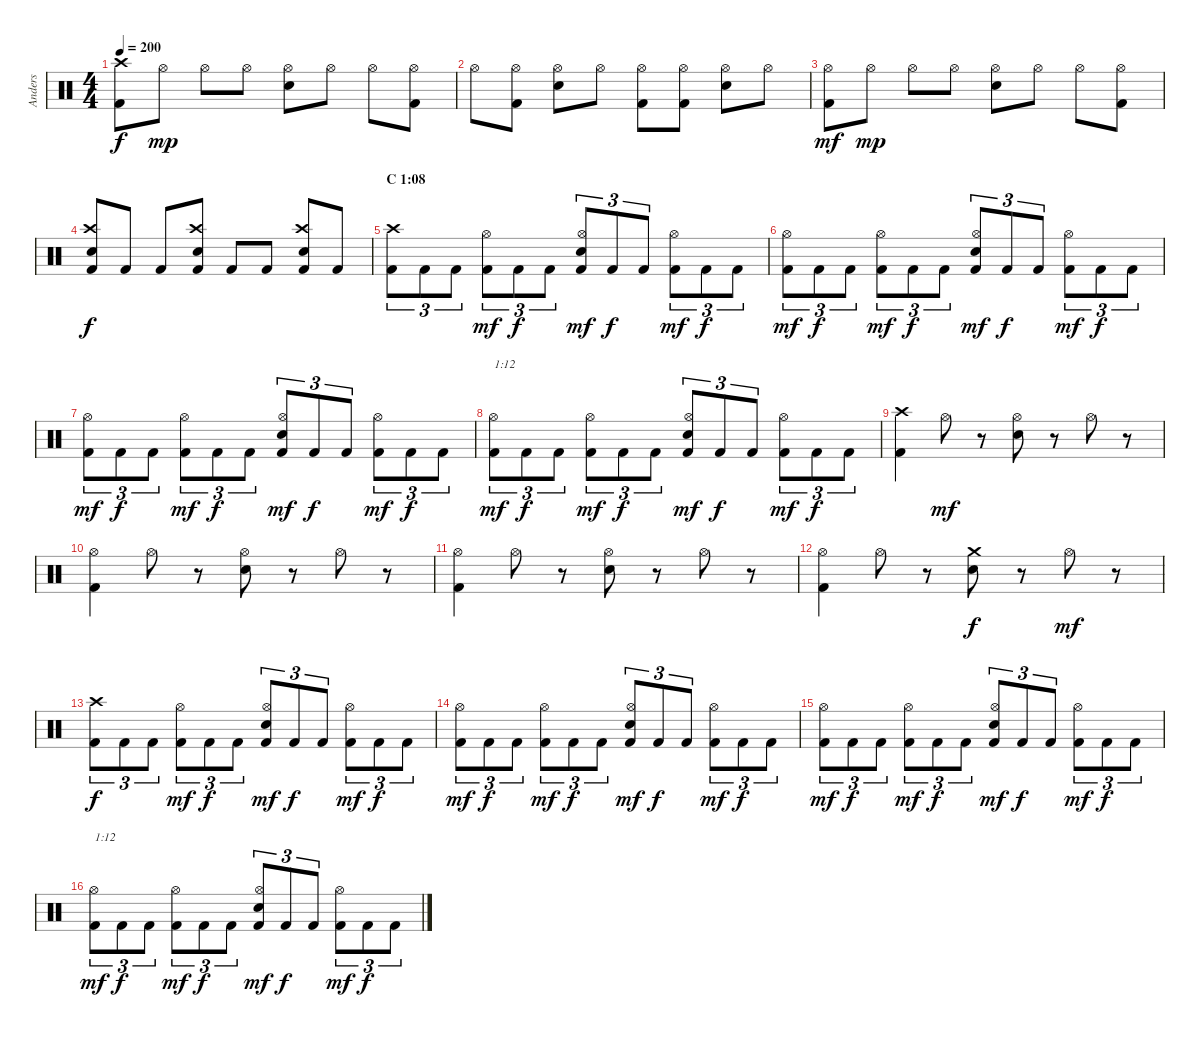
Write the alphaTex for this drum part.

\track ("Anders" "Anders") {instrument percussion}
\staff {score}
\articulation defaults
\ts (4 4)
\tempo 200
\clef neutral
\ks c
("Kick (hit) 2" "Crash high (hit)").8{dy f} "Hi-Hat (open)".8{dy mp} "Hi-Hat (open)".8 "Hi-Hat (open)".8 ("Electric Snare (hit)" "Hi-Hat (open)").8 "Hi-Hat (open)".8 "Hi-Hat (open)".8 ("Kick (hit) 2" "Hi-Hat (open)").8 |
"Hi-Hat (open)".8 ("Kick (hit) 2" "Hi-Hat (open)").8 ("Electric Snare (hit)" "Hi-Hat (open)").8 "Hi-Hat (open)".8 ("Kick (hit) 2" "Hi-Hat (open)").8 ("Kick (hit) 2" "Hi-Hat (open)").8 ("Electric Snare (hit)" "Hi-Hat (open)").8 "Hi-Hat (open)".8 |
("Kick (hit) 2" "Hi-Hat (open)").8{dy mf} "Hi-Hat (open)".8{dy mp} "Hi-Hat (open)".8 "Hi-Hat (open)".8 ("Electric Snare (hit)" "Hi-Hat (open)").8 "Hi-Hat (open)".8 "Hi-Hat (open)".8 ("Kick (hit) 2" "Hi-Hat (open)").8 |
("Kick (hit) 2" "Electric Snare (hit)" "Crash high (hit)").8{dy f} "Kick (hit) 2".8 "Kick (hit) 2".8 ("Kick (hit) 2" "Electric Snare (hit)" "Crash high (hit)").8 "Kick (hit) 2".8 "Kick (hit) 2".8 ("Kick (hit) 2" "Electric Snare (hit)" "Crash high (hit)").8 "Kick (hit) 2".8 |
\section ("" "C 1:08")
("Kick (hit) 2" "Crash high (hit)").8{tu (3 2)} "Kick (hit) 2".8{tu (3 2)} "Kick (hit) 2".8{tu (3 2)} ("Kick (hit) 2" "Hi-Hat (open)").8{tu (3 2) dy mf} "Kick (hit) 2".8{tu (3 2) dy f} "Kick (hit) 2".8{tu (3 2)} ("Kick (hit) 2" "Electric Snare (hit)" "Hi-Hat (open)").8{tu (3 2) dy mf} "Kick (hit) 2".8{tu (3 2) dy f} "Kick (hit) 2".8{tu (3 2)} ("Kick (hit) 2" "Hi-Hat (open)").8{tu (3 2) dy mf} "Kick (hit) 2".8{tu (3 2) dy f} "Kick (hit) 2".8{tu (3 2)} |
("Kick (hit) 2" "Hi-Hat (open)").8{tu (3 2) dy mf} "Kick (hit) 2".8{tu (3 2) dy f} "Kick (hit) 2".8{tu (3 2)} ("Kick (hit) 2" "Hi-Hat (open)").8{tu (3 2) dy mf} "Kick (hit) 2".8{tu (3 2) dy f} "Kick (hit) 2".8{tu (3 2)} ("Kick (hit) 2" "Electric Snare (hit)" "Hi-Hat (open)").8{tu (3 2) dy mf} "Kick (hit) 2".8{tu (3 2) dy f} "Kick (hit) 2".8{tu (3 2)} ("Kick (hit) 2" "Hi-Hat (open)").8{tu (3 2) dy mf} "Kick (hit) 2".8{tu (3 2) dy f} "Kick (hit) 2".8{tu (3 2)} |
("Kick (hit) 2" "Hi-Hat (open)").8{tu (3 2) dy mf} "Kick (hit) 2".8{tu (3 2) dy f} "Kick (hit) 2".8{tu (3 2)} ("Kick (hit) 2" "Hi-Hat (open)").8{tu (3 2) dy mf} "Kick (hit) 2".8{tu (3 2) dy f} "Kick (hit) 2".8{tu (3 2)} ("Kick (hit) 2" "Electric Snare (hit)" "Hi-Hat (open)").8{tu (3 2) dy mf} "Kick (hit) 2".8{tu (3 2) dy f} "Kick (hit) 2".8{tu (3 2)} ("Kick (hit) 2" "Hi-Hat (open)").8{tu (3 2) dy mf} "Kick (hit) 2".8{tu (3 2) dy f} "Kick (hit) 2".8{tu (3 2)} |
("Kick (hit) 2" "Hi-Hat (open)").8{tu (3 2) txt "1:12" dy mf} "Kick (hit) 2".8{tu (3 2) dy f} "Kick (hit) 2".8{tu (3 2)} ("Kick (hit) 2" "Hi-Hat (open)").8{tu (3 2) dy mf} "Kick (hit) 2".8{tu (3 2) dy f} "Kick (hit) 2".8{tu (3 2)} ("Kick (hit) 2" "Electric Snare (hit)" "Hi-Hat (open)").8{tu (3 2) dy mf} "Kick (hit) 2".8{tu (3 2) dy f} "Kick (hit) 2".8{tu (3 2)} ("Kick (hit) 2" "Hi-Hat (open)").8{tu (3 2) dy mf} "Kick (hit) 2".8{tu (3 2) dy f} "Kick (hit) 2".8{tu (3 2)} |
("Kick (hit) 2" "Crash high (hit)").4 "Hi-Hat (open)".8{dy mf} r.8 ("Electric Snare (hit)" "Hi-Hat (open)").8 r.8 "Hi-Hat (open)".8 r.8 |
("Kick (hit) 2" "Hi-Hat (open)").4 "Hi-Hat (open)".8 r.8 ("Electric Snare (hit)" "Hi-Hat (open)").8 r.8 "Hi-Hat (open)".8 r.8 |
("Kick (hit) 2" "Hi-Hat (open)").4 "Hi-Hat (open)".8 r.8 ("Electric Snare (hit)" "Hi-Hat (open)").8 r.8 "Hi-Hat (open)".8 r.8 |
("Kick (hit) 2" "Hi-Hat (open)").4 "Hi-Hat (open)".8 r.8 ("Electric Snare (hit)" "Crash medium (hit)").8{dy f} r.8 "Hi-Hat (open)".8{dy mf} r.8 |
("Kick (hit) 2" "Crash high (hit)").8{tu (3 2) dy f} "Kick (hit) 2".8{tu (3 2)} "Kick (hit) 2".8{tu (3 2)} ("Kick (hit) 2" "Hi-Hat (open)").8{tu (3 2) dy mf} "Kick (hit) 2".8{tu (3 2) dy f} "Kick (hit) 2".8{tu (3 2)} ("Kick (hit) 2" "Electric Snare (hit)" "Hi-Hat (open)").8{tu (3 2) dy mf} "Kick (hit) 2".8{tu (3 2) dy f} "Kick (hit) 2".8{tu (3 2)} ("Kick (hit) 2" "Hi-Hat (open)").8{tu (3 2) dy mf} "Kick (hit) 2".8{tu (3 2) dy f} "Kick (hit) 2".8{tu (3 2)} |
("Kick (hit) 2" "Hi-Hat (open)").8{tu (3 2) dy mf} "Kick (hit) 2".8{tu (3 2) dy f} "Kick (hit) 2".8{tu (3 2)} ("Kick (hit) 2" "Hi-Hat (open)").8{tu (3 2) dy mf} "Kick (hit) 2".8{tu (3 2) dy f} "Kick (hit) 2".8{tu (3 2)} ("Kick (hit) 2" "Electric Snare (hit)" "Hi-Hat (open)").8{tu (3 2) dy mf} "Kick (hit) 2".8{tu (3 2) dy f} "Kick (hit) 2".8{tu (3 2)} ("Kick (hit) 2" "Hi-Hat (open)").8{tu (3 2) dy mf} "Kick (hit) 2".8{tu (3 2) dy f} "Kick (hit) 2".8{tu (3 2)} |
("Kick (hit) 2" "Hi-Hat (open)").8{tu (3 2) dy mf} "Kick (hit) 2".8{tu (3 2) dy f} "Kick (hit) 2".8{tu (3 2)} ("Kick (hit) 2" "Hi-Hat (open)").8{tu (3 2) dy mf} "Kick (hit) 2".8{tu (3 2) dy f} "Kick (hit) 2".8{tu (3 2)} ("Kick (hit) 2" "Electric Snare (hit)" "Hi-Hat (open)").8{tu (3 2) dy mf} "Kick (hit) 2".8{tu (3 2) dy f} "Kick (hit) 2".8{tu (3 2)} ("Kick (hit) 2" "Hi-Hat (open)").8{tu (3 2) dy mf} "Kick (hit) 2".8{tu (3 2) dy f} "Kick (hit) 2".8{tu (3 2)} |
("Kick (hit) 2" "Hi-Hat (open)").8{tu (3 2) txt "1:12" dy mf} "Kick (hit) 2".8{tu (3 2) dy f} "Kick (hit) 2".8{tu (3 2)} ("Kick (hit) 2" "Hi-Hat (open)").8{tu (3 2) dy mf} "Kick (hit) 2".8{tu (3 2) dy f} "Kick (hit) 2".8{tu (3 2)} ("Kick (hit) 2" "Electric Snare (hit)" "Hi-Hat (open)").8{tu (3 2) dy mf} "Kick (hit) 2".8{tu (3 2) dy f} "Kick (hit) 2".8{tu (3 2)} ("Kick (hit) 2" "Hi-Hat (open)").8{tu (3 2) dy mf} "Kick (hit) 2".8{tu (3 2) dy f} "Kick (hit) 2".8{tu (3 2)}
